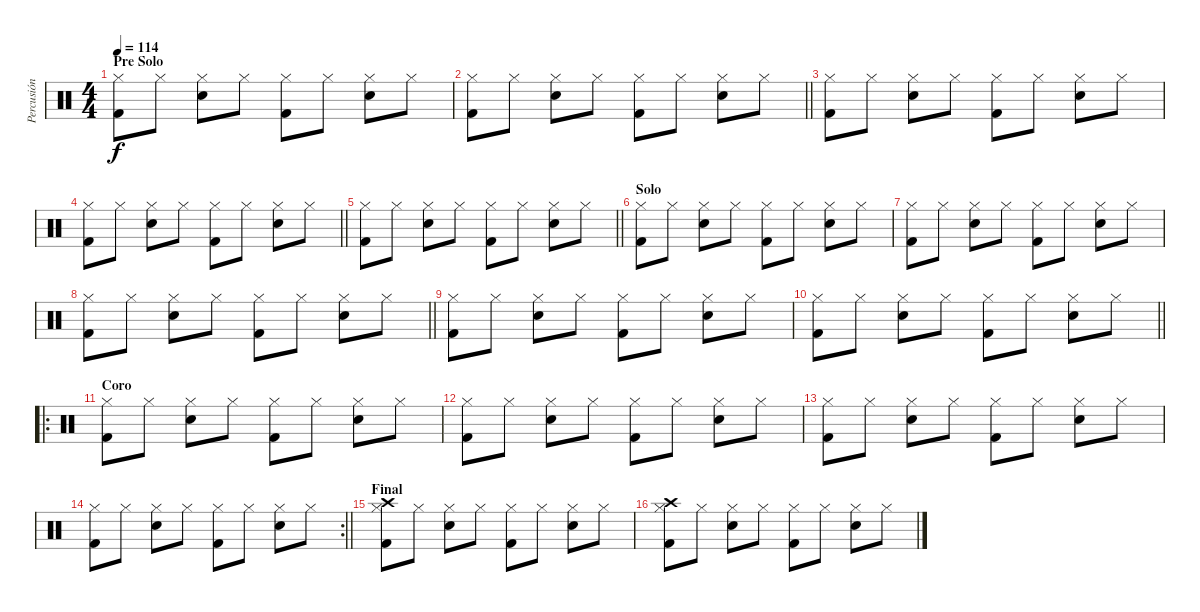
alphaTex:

\track ("Percusión" "Percusión") {instrument percussion}
\staff {score}
\articulation defaults
\ts (4 4)
\section ("" "Pre Solo")
\tempo 114
\clef neutral
\ks c
("Hi-Hat (closed)" "Kick (hit) 2").8{dy f} "Hi-Hat (closed)".8 ("Hi-Hat (closed)" "Electric Snare (hit)").8 "Hi-Hat (closed)".8 ("Hi-Hat (closed)" "Kick (hit) 2").8 "Hi-Hat (closed)".8 ("Hi-Hat (closed)" "Electric Snare (hit)").8 "Hi-Hat (closed)".8 |
\barLineRight lightlight
("Hi-Hat (closed)" "Kick (hit) 2").8 "Hi-Hat (closed)".8 ("Hi-Hat (closed)" "Electric Snare (hit)").8 "Hi-Hat (closed)".8 ("Hi-Hat (closed)" "Kick (hit) 2").8 "Hi-Hat (closed)".8 ("Hi-Hat (closed)" "Electric Snare (hit)").8 "Hi-Hat (closed)".8 |
("Hi-Hat (closed)" "Kick (hit) 2").8 "Hi-Hat (closed)".8 ("Hi-Hat (closed)" "Electric Snare (hit)").8 "Hi-Hat (closed)".8 ("Hi-Hat (closed)" "Kick (hit) 2").8 "Hi-Hat (closed)".8 ("Hi-Hat (closed)" "Electric Snare (hit)").8 "Hi-Hat (closed)".8 |
\barLineRight lightlight
("Hi-Hat (closed)" "Kick (hit) 2").8 "Hi-Hat (closed)".8 ("Hi-Hat (closed)" "Electric Snare (hit)").8 "Hi-Hat (closed)".8 ("Hi-Hat (closed)" "Kick (hit) 2").8 "Hi-Hat (closed)".8 ("Hi-Hat (closed)" "Electric Snare (hit)").8 "Hi-Hat (closed)".8 |
\barLineRight lightlight
("Hi-Hat (closed)" "Kick (hit) 2").8 "Hi-Hat (closed)".8 ("Hi-Hat (closed)" "Electric Snare (hit)").8 "Hi-Hat (closed)".8 ("Hi-Hat (closed)" "Kick (hit) 2").8 "Hi-Hat (closed)".8 ("Hi-Hat (closed)" "Electric Snare (hit)").8 "Hi-Hat (closed)".8 |
\section ("" "Solo")
("Hi-Hat (closed)" "Kick (hit) 2").8 "Hi-Hat (closed)".8 ("Hi-Hat (closed)" "Electric Snare (hit)").8 "Hi-Hat (closed)".8 ("Hi-Hat (closed)" "Kick (hit) 2").8 "Hi-Hat (closed)".8 ("Hi-Hat (closed)" "Electric Snare (hit)").8 "Hi-Hat (closed)".8 |
("Hi-Hat (closed)" "Kick (hit) 2").8 "Hi-Hat (closed)".8 ("Hi-Hat (closed)" "Electric Snare (hit)").8 "Hi-Hat (closed)".8 ("Hi-Hat (closed)" "Kick (hit) 2").8 "Hi-Hat (closed)".8 ("Hi-Hat (closed)" "Electric Snare (hit)").8 "Hi-Hat (closed)".8 |
\barLineRight lightlight
("Hi-Hat (closed)" "Kick (hit) 2").8 "Hi-Hat (closed)".8 ("Hi-Hat (closed)" "Electric Snare (hit)").8 "Hi-Hat (closed)".8 ("Hi-Hat (closed)" "Kick (hit) 2").8 "Hi-Hat (closed)".8 ("Hi-Hat (closed)" "Electric Snare (hit)").8 "Hi-Hat (closed)".8 |
("Hi-Hat (closed)" "Kick (hit) 2").8 "Hi-Hat (closed)".8 ("Hi-Hat (closed)" "Electric Snare (hit)").8 "Hi-Hat (closed)".8 ("Hi-Hat (closed)" "Kick (hit) 2").8 "Hi-Hat (closed)".8 ("Hi-Hat (closed)" "Electric Snare (hit)").8 "Hi-Hat (closed)".8 |
\barLineRight lightlight
("Hi-Hat (closed)" "Kick (hit) 2").8 "Hi-Hat (closed)".8 ("Hi-Hat (closed)" "Electric Snare (hit)").8 "Hi-Hat (closed)".8 ("Hi-Hat (closed)" "Kick (hit) 2").8 "Hi-Hat (closed)".8 ("Hi-Hat (closed)" "Electric Snare (hit)").8 "Hi-Hat (closed)".8 |
\ro
\section ("" "Coro")
("Hi-Hat (closed)" "Kick (hit) 2").8 "Hi-Hat (closed)".8 ("Hi-Hat (closed)" "Electric Snare (hit)").8 "Hi-Hat (closed)".8 ("Hi-Hat (closed)" "Kick (hit) 2").8 "Hi-Hat (closed)".8 ("Hi-Hat (closed)" "Electric Snare (hit)").8 "Hi-Hat (closed)".8 |
("Hi-Hat (closed)" "Kick (hit) 2").8 "Hi-Hat (closed)".8 ("Hi-Hat (closed)" "Electric Snare (hit)").8 "Hi-Hat (closed)".8 ("Hi-Hat (closed)" "Kick (hit) 2").8 "Hi-Hat (closed)".8 ("Hi-Hat (closed)" "Electric Snare (hit)").8 "Hi-Hat (closed)".8 |
("Hi-Hat (closed)" "Kick (hit) 2").8 "Hi-Hat (closed)".8 ("Hi-Hat (closed)" "Electric Snare (hit)").8 "Hi-Hat (closed)".8 ("Hi-Hat (closed)" "Kick (hit) 2").8 "Hi-Hat (closed)".8 ("Hi-Hat (closed)" "Electric Snare (hit)").8 "Hi-Hat (closed)".8 |
\rc 2
\barLineRight lightlight
("Hi-Hat (closed)" "Kick (hit) 2").8 "Hi-Hat (closed)".8 ("Hi-Hat (closed)" "Electric Snare (hit)").8 "Hi-Hat (closed)".8 ("Hi-Hat (closed)" "Kick (hit) 2").8 "Hi-Hat (closed)".8 ("Hi-Hat (closed)" "Electric Snare (hit)").8 "Hi-Hat (closed)".8 |
\section ("" "Final")
("Crash high (hit)" "Hi-Hat (closed)" "Kick (hit) 2").8 "Hi-Hat (closed)".8 ("Hi-Hat (closed)" "Electric Snare (hit)").8 "Hi-Hat (closed)".8 ("Hi-Hat (closed)" "Kick (hit) 2").8 "Hi-Hat (closed)".8 ("Hi-Hat (closed)" "Electric Snare (hit)").8 "Hi-Hat (closed)".8 |
("Crash high (hit)" "Hi-Hat (closed)" "Kick (hit) 2").8 "Hi-Hat (closed)".8 ("Hi-Hat (closed)" "Electric Snare (hit)").8 "Hi-Hat (closed)".8 ("Hi-Hat (closed)" "Kick (hit) 2").8 "Hi-Hat (closed)".8 ("Hi-Hat (closed)" "Electric Snare (hit)").8 "Hi-Hat (closed)".8
